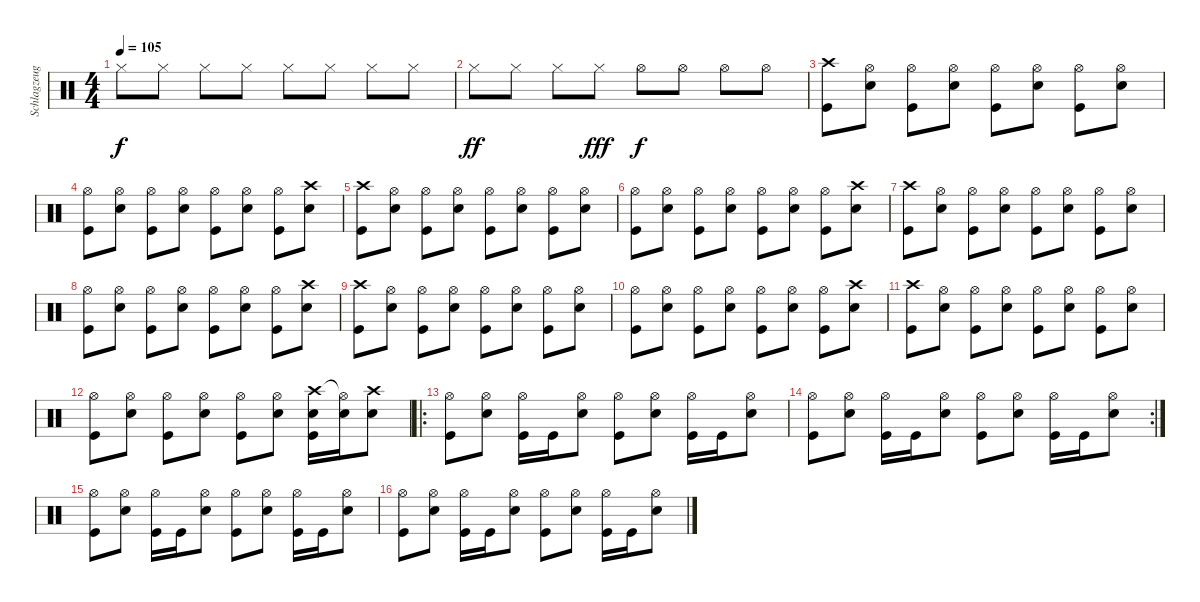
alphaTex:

\track ("Schlagzeug" "Schlagzeug") {instrument percussion}
\staff {score}
\articulation defaults
\ts (4 4)
\tempo 105
\clef neutral
\ks c "Hi-Hat (closed)".8{dy f} "Hi-Hat (closed)".8 "Hi-Hat (closed)".8 "Hi-Hat (closed)".8 "Hi-Hat (closed)".8 "Hi-Hat (closed)".8 "Hi-Hat (closed)".8 "Hi-Hat (closed)".8
|
"Hi-Hat (closed)".8{dy ff} "Hi-Hat (closed)".8 "Hi-Hat (closed)".8 "Hi-Hat (closed)".8{dy fff} "Hi-Hat (open)".8{dy f} "Hi-Hat (open)".8 "Hi-Hat (open)".8 "Hi-Hat (open)".8 |
("Crash high (hit)" "Kick (hit)").8 ("Hi-Hat (open)" "Snare (hit) 2").8 ("Hi-Hat (open)" "Kick (hit)").8 ("Hi-Hat (open)" "Snare (hit) 2").8 ("Hi-Hat (open)" "Kick (hit)").8 ("Hi-Hat (open)" "Snare (hit) 2").8 ("Hi-Hat (open)" "Kick (hit)").8 ("Hi-Hat (open)" "Snare (hit) 2").8 |
("Hi-Hat (open)" "Kick (hit)").8 ("Hi-Hat (open)" "Snare (hit) 2").8 ("Hi-Hat (open)" "Kick (hit)").8 ("Hi-Hat (open)" "Snare (hit) 2").8 ("Hi-Hat (open)" "Kick (hit)").8 ("Hi-Hat (open)" "Snare (hit) 2").8 ("Hi-Hat (open)" "Kick (hit)").8 ("Crash high (hit)" "Snare (hit) 2").8 |
("Crash high (hit)" "Kick (hit)").8 ("Hi-Hat (open)" "Snare (hit) 2").8 ("Hi-Hat (open)" "Kick (hit)").8 ("Hi-Hat (open)" "Snare (hit) 2").8 ("Hi-Hat (open)" "Kick (hit)").8 ("Hi-Hat (open)" "Snare (hit) 2").8 ("Hi-Hat (open)" "Kick (hit)").8 ("Hi-Hat (open)" "Snare (hit) 2").8 |
("Hi-Hat (open)" "Kick (hit)").8 ("Hi-Hat (open)" "Snare (hit) 2").8 ("Hi-Hat (open)" "Kick (hit)").8 ("Hi-Hat (open)" "Snare (hit) 2").8 ("Hi-Hat (open)" "Kick (hit)").8 ("Hi-Hat (open)" "Snare (hit) 2").8 ("Hi-Hat (open)" "Kick (hit)").8 ("Crash high (hit)" "Snare (hit) 2").8 |
("Crash high (hit)" "Kick (hit)").8 ("Hi-Hat (open)" "Snare (hit) 2").8 ("Hi-Hat (open)" "Kick (hit)").8 ("Hi-Hat (open)" "Snare (hit) 2").8 ("Hi-Hat (open)" "Kick (hit)").8 ("Hi-Hat (open)" "Snare (hit) 2").8 ("Hi-Hat (open)" "Kick (hit)").8 ("Hi-Hat (open)" "Snare (hit) 2").8 |
("Hi-Hat (open)" "Kick (hit)").8 ("Hi-Hat (open)" "Snare (hit) 2").8 ("Hi-Hat (open)" "Kick (hit)").8 ("Hi-Hat (open)" "Snare (hit) 2").8 ("Hi-Hat (open)" "Kick (hit)").8 ("Hi-Hat (open)" "Snare (hit) 2").8 ("Hi-Hat (open)" "Kick (hit)").8 ("Crash high (hit)" "Snare (hit) 2").8 |
("Crash high (hit)" "Kick (hit)").8 ("Hi-Hat (open)" "Snare (hit) 2").8 ("Hi-Hat (open)" "Kick (hit)").8 ("Hi-Hat (open)" "Snare (hit) 2").8 ("Hi-Hat (open)" "Kick (hit)").8 ("Hi-Hat (open)" "Snare (hit) 2").8 ("Hi-Hat (open)" "Kick (hit)").8 ("Hi-Hat (open)" "Snare (hit) 2").8 |
("Hi-Hat (open)" "Kick (hit)").8 ("Hi-Hat (open)" "Snare (hit) 2").8 ("Hi-Hat (open)" "Kick (hit)").8 ("Hi-Hat (open)" "Snare (hit) 2").8 ("Hi-Hat (open)" "Kick (hit)").8 ("Hi-Hat (open)" "Snare (hit) 2").8 ("Hi-Hat (open)" "Kick (hit)").8 ("Crash high (hit)" "Snare (hit) 2").8 |
("Crash high (hit)" "Kick (hit)").8 ("Hi-Hat (open)" "Snare (hit) 2").8 ("Hi-Hat (open)" "Kick (hit)").8 ("Hi-Hat (open)" "Snare (hit) 2").8 ("Hi-Hat (open)" "Kick (hit)").8 ("Hi-Hat (open)" "Snare (hit) 2").8 ("Hi-Hat (open)" "Kick (hit)").8 ("Hi-Hat (open)" "Snare (hit) 2").8 |
("Hi-Hat (open)" "Kick (hit)").8 ("Hi-Hat (open)" "Snare (hit) 2").8 ("Hi-Hat (open)" "Kick (hit)").8 ("Hi-Hat (open)" "Snare (hit) 2").8 ("Hi-Hat (open)" "Kick (hit)").8 ("Hi-Hat (open)" "Snare (hit) 2").8 ("Crash high (hit)" "Snare (hit) 2" "Kick (hit)").16 ("Hi-Hat (open)"{t} "Snare (hit) 2").16 ("Crash high (hit)" "Snare (hit) 2").8 |
\ro
("Hi-Hat (open)" "Kick (hit)").8 ("Hi-Hat (open)" "Snare (hit) 2").8 ("Hi-Hat (open)" "Kick (hit)").16 "Kick (hit)".16 ("Hi-Hat (open)" "Snare (hit) 2").8 ("Hi-Hat (open)" "Kick (hit)").8 ("Hi-Hat (open)" "Snare (hit) 2").8 ("Hi-Hat (open)" "Kick (hit)").16 "Kick (hit)".16 ("Hi-Hat (open)" "Snare (hit) 2").8 |
\rc 2
("Hi-Hat (open)" "Kick (hit)").8 ("Hi-Hat (open)" "Snare (hit) 2").8 ("Hi-Hat (open)" "Kick (hit)").16 "Kick (hit)".16 ("Hi-Hat (open)" "Snare (hit) 2").8 ("Hi-Hat (open)" "Kick (hit)").8 ("Hi-Hat (open)" "Snare (hit) 2").8 ("Hi-Hat (open)" "Kick (hit)").16 "Kick (hit)".16 ("Hi-Hat (open)" "Snare (hit) 2").8 |
("Hi-Hat (open)" "Kick (hit)").8 ("Hi-Hat (open)" "Snare (hit) 2").8 ("Hi-Hat (open)" "Kick (hit)").16 "Kick (hit)".16 ("Hi-Hat (open)" "Snare (hit) 2").8 ("Hi-Hat (open)" "Kick (hit)").8 ("Hi-Hat (open)" "Snare (hit) 2").8 ("Hi-Hat (open)" "Kick (hit)").16 "Kick (hit)".16 ("Hi-Hat (open)" "Snare (hit) 2").8 |
("Hi-Hat (open)" "Kick (hit)").8 ("Hi-Hat (open)" "Snare (hit) 2").8 ("Hi-Hat (open)" "Kick (hit)").16 "Kick (hit)".16 ("Hi-Hat (open)" "Snare (hit) 2").8 ("Hi-Hat (open)" "Kick (hit)").8 ("Hi-Hat (open)" "Snare (hit) 2").8 ("Hi-Hat (open)" "Kick (hit)").16 "Kick (hit)".16 ("Hi-Hat (open)" "Snare (hit) 2").8
